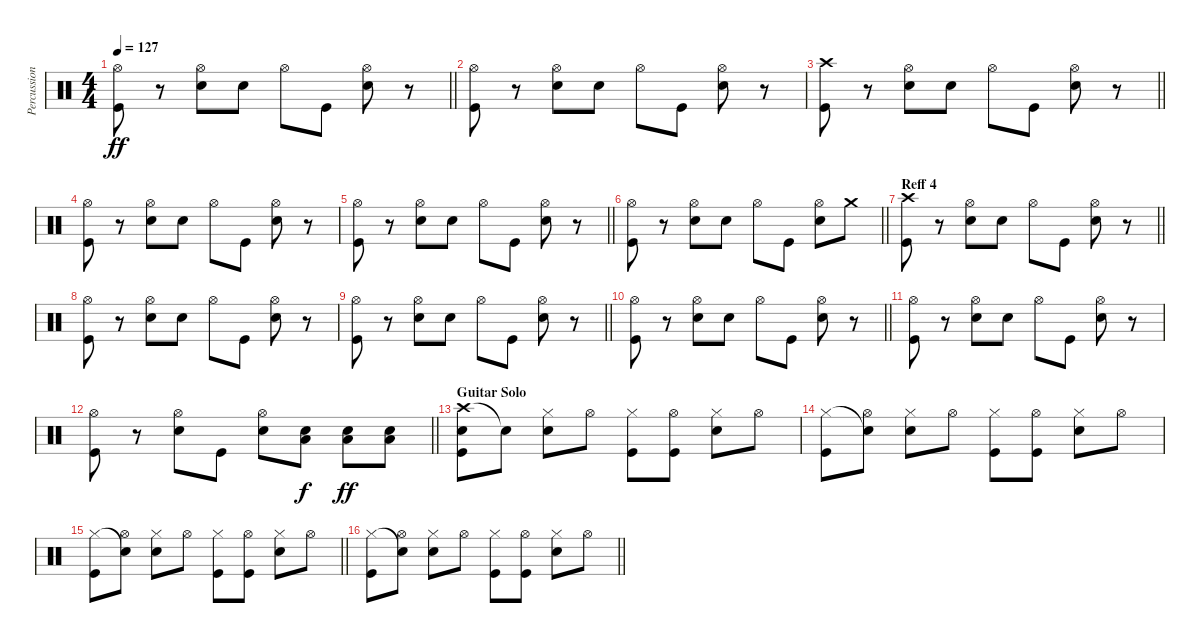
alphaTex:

\track ("Percussion" "Percussion") {instrument percussion}
\staff {score}
\articulation defaults
\ts (4 4)
\tempo 127
\clef neutral
\barLineRight lightlight
\ks c
("Hi-Hat (open)" "Kick (hit)").8{dy ff} r.8 ("Hi-Hat (open)" "Electric Snare (hit)").8 "Electric Snare (hit)".8 "Hi-Hat (open)".8 "Kick (hit)".8 ("Hi-Hat (open)" "Electric Snare (hit)").8 r.8 |
("Hi-Hat (open)" "Kick (hit)").8 r.8 ("Hi-Hat (open)" "Electric Snare (hit)").8 "Electric Snare (hit)".8 "Hi-Hat (open)".8 "Kick (hit)".8 ("Hi-Hat (open)" "Electric Snare (hit)").8 r.8 |
\barLineRight lightlight
("Crash high (hit)" "Kick (hit)").8 r.8 ("Hi-Hat (open)" "Electric Snare (hit)").8 "Electric Snare (hit)".8 "Hi-Hat (open)".8 "Kick (hit)".8 ("Hi-Hat (open)" "Electric Snare (hit)").8 r.8 |
("Hi-Hat (open)" "Kick (hit)").8 r.8 ("Hi-Hat (open)" "Electric Snare (hit)").8 "Electric Snare (hit)".8 "Hi-Hat (open)".8 "Kick (hit)".8 ("Hi-Hat (open)" "Electric Snare (hit)").8 r.8 |
\barLineRight lightlight
("Hi-Hat (open)" "Kick (hit)").8 r.8 ("Hi-Hat (open)" "Electric Snare (hit)").8 "Electric Snare (hit)".8 "Hi-Hat (open)".8 "Kick (hit)".8 ("Hi-Hat (open)" "Electric Snare (hit)").8 r.8 |
\barLineRight lightlight
("Hi-Hat (open)" "Kick (hit)").8 r.8 ("Hi-Hat (open)" "Electric Snare (hit)").8 "Electric Snare (hit)".8 "Hi-Hat (open)".8 "Kick (hit)".8 ("Hi-Hat (open)" "Electric Snare (hit)").8 "Crash medium (hit)".8 |
\section ("" "Reff 4")
\barLineRight lightlight
("Crash high (hit)" "Kick (hit)").8 r.8 ("Hi-Hat (open)" "Electric Snare (hit)").8 "Electric Snare (hit)".8 "Hi-Hat (open)".8 "Kick (hit)".8 ("Hi-Hat (open)" "Electric Snare (hit)").8 r.8 |
("Hi-Hat (open)" "Kick (hit)").8 r.8 ("Hi-Hat (open)" "Electric Snare (hit)").8 "Electric Snare (hit)".8 "Hi-Hat (open)".8 "Kick (hit)".8 ("Hi-Hat (open)" "Electric Snare (hit)").8 r.8 |
\barLineRight lightlight
("Hi-Hat (open)" "Kick (hit)").8 r.8 ("Hi-Hat (open)" "Electric Snare (hit)").8 "Electric Snare (hit)".8 "Hi-Hat (open)".8 "Kick (hit)".8 ("Hi-Hat (open)" "Electric Snare (hit)").8 r.8 |
\barLineRight lightlight
("Hi-Hat (open)" "Kick (hit)").8 r.8 ("Hi-Hat (open)" "Electric Snare (hit)").8 "Electric Snare (hit)".8 "Hi-Hat (open)".8 "Kick (hit)".8 ("Hi-Hat (open)" "Electric Snare (hit)").8 r.8 |
("Hi-Hat (open)" "Kick (hit)").8 r.8 ("Hi-Hat (open)" "Electric Snare (hit)").8 "Electric Snare (hit)".8 "Hi-Hat (open)".8 "Kick (hit)".8 ("Hi-Hat (open)" "Electric Snare (hit)").8 r.8 |
\barLineRight lightlight
("Hi-Hat (open)" "Kick (hit)").8 r.8 ("Hi-Hat (open)" "Electric Snare (hit)").8 "Kick (hit)".8 ("Hi-Hat (open)" "Electric Snare (hit)").8 ("Low Floor Tom (hit)" "Electric Snare (hit)").8{dy f} ("Low Floor Tom (hit)" "Electric Snare (hit)").8{dy ff} ("Low Floor Tom (hit)" "Electric Snare (hit)").8 |
\section ("" "Guitar Solo")
("Crash high (hit)" "Electric Snare (hit)" "Kick (hit)").8 "Snare (hit)"{t}.8 ("Hi-Hat (closed)" "Electric Snare (hit)").8 "Hi-Hat (open)".8 ("Hi-Hat (closed)" "Kick (hit)").8 ("Hi-Hat (open)" "Kick (hit)").8 ("Hi-Hat (closed)" "Electric Snare (hit)").8 "Hi-Hat (open)".8 |
("Hi-Hat (closed)" "Kick (hit)").8 ("Snare (hit)"{t} "Hi-Hat (open)").8 ("Hi-Hat (closed)" "Electric Snare (hit)").8 "Hi-Hat (open)".8 ("Hi-Hat (closed)" "Kick (hit)").8 ("Hi-Hat (open)" "Kick (hit)").8 ("Hi-Hat (closed)" "Electric Snare (hit)").8 "Hi-Hat (open)".8 |
\barLineRight lightlight
("Hi-Hat (closed)" "Kick (hit)").8 ("Snare (hit)"{t} "Hi-Hat (open)").8 ("Hi-Hat (closed)" "Electric Snare (hit)").8 "Hi-Hat (open)".8 ("Hi-Hat (closed)" "Kick (hit)").8 ("Hi-Hat (open)" "Kick (hit)").8 ("Hi-Hat (closed)" "Electric Snare (hit)").8 "Hi-Hat (open)".8 |
\barLineRight lightlight
("Hi-Hat (closed)" "Kick (hit)").8 ("Snare (hit)"{t} "Hi-Hat (open)").8 ("Hi-Hat (closed)" "Electric Snare (hit)").8 "Hi-Hat (open)".8 ("Hi-Hat (closed)" "Kick (hit)").8 ("Hi-Hat (open)" "Kick (hit)").8 ("Hi-Hat (closed)" "Electric Snare (hit)").8 "Hi-Hat (open)".8
